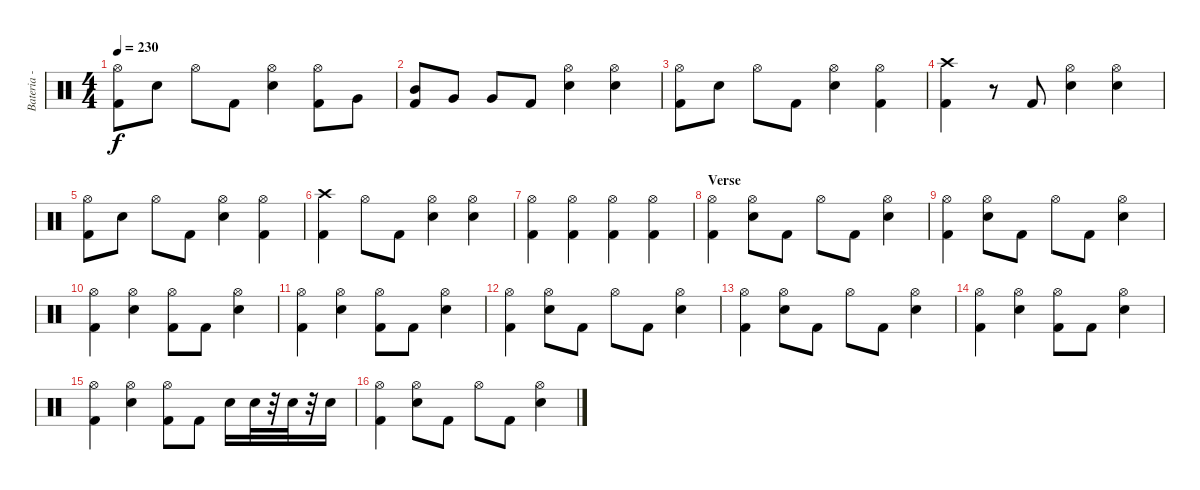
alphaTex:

\track ("Bateria - Larzon" "Bateria - ") {instrument percussion}
\staff {score}
\articulation defaults
\ts (4 4)
\tempo 230
\clef neutral
\ks c
("Hi-Hat (open)" "Kick (hit) 2").8{dy f} "Electric Snare (hit)".8 "Hi-Hat (open)".8 "Kick (hit) 2".8 ("Hi-Hat (open)" "Electric Snare (hit)").4 ("Hi-Hat (open)" "Kick (hit) 2").8 "Very Low Tom (hit)".8 |
("Kick (hit) 2" "Mid Tom (hit)").8 "Very Low Tom (hit)".8 "Very Low Tom (hit)".8 "Kick (hit) 2".8 ("Electric Snare (hit)" "Hi-Hat (open)").4 ("Hi-Hat (open)" "Electric Snare (hit)").4 |
("Hi-Hat (open)" "Kick (hit) 2").8 "Electric Snare (hit)".8 "Hi-Hat (open)".8 "Kick (hit) 2".8 ("Hi-Hat (open)" "Electric Snare (hit)").4 ("Hi-Hat (open)" "Kick (hit) 2").4 |
("Crash high (hit)" "Kick (hit) 2").4 r.8 "Kick (hit) 2".8 ("Electric Snare (hit)" "Hi-Hat (open)").4 ("Hi-Hat (open)" "Electric Snare (hit)").4 |
("Hi-Hat (open)" "Kick (hit) 2").8 "Electric Snare (hit)".8 "Hi-Hat (open)".8 "Kick (hit) 2".8 ("Hi-Hat (open)" "Electric Snare (hit)").4 ("Hi-Hat (open)" "Kick (hit) 2").4 |
("Crash high (hit)" "Kick (hit) 2").4 "Hi-Hat (open)".8 "Kick (hit) 2".8 ("Electric Snare (hit)" "Hi-Hat (open)").4 ("Hi-Hat (open)" "Electric Snare (hit)").4 |
("Kick (hit) 2" "Hi-Hat (open)").4 ("Hi-Hat (open)" "Kick (hit) 2").4 ("Hi-Hat (open)" "Kick (hit) 2").4 ("Hi-Hat (open)" "Kick (hit) 2").4 |
\section ("" "Verse")
("Hi-Hat (open)" "Kick (hit) 2").4 ("Hi-Hat (open)" "Electric Snare (hit)").8 "Kick (hit) 2".8 "Hi-Hat (open)".8 "Kick (hit) 2".8 ("Hi-Hat (open)" "Electric Snare (hit)").4 |
("Hi-Hat (open)" "Kick (hit) 2").4 ("Hi-Hat (open)" "Electric Snare (hit)").8 "Kick (hit) 2".8 "Hi-Hat (open)".8 "Kick (hit) 2".8 ("Hi-Hat (open)" "Electric Snare (hit)").4 |
("Hi-Hat (open)" "Kick (hit) 2").4 ("Hi-Hat (open)" "Electric Snare (hit)").4 ("Hi-Hat (open)" "Kick (hit) 2").8 "Kick (hit) 2".8 ("Hi-Hat (open)" "Electric Snare (hit)").4 |
("Hi-Hat (open)" "Kick (hit) 2").4 ("Hi-Hat (open)" "Electric Snare (hit)").4 ("Hi-Hat (open)" "Kick (hit) 2").8 "Kick (hit) 2".8 ("Hi-Hat (open)" "Electric Snare (hit)").4 |
("Hi-Hat (open)" "Kick (hit) 2").4 ("Hi-Hat (open)" "Electric Snare (hit)").8 "Kick (hit) 2".8 "Hi-Hat (open)".8 "Kick (hit) 2".8 ("Hi-Hat (open)" "Electric Snare (hit)").4 |
("Hi-Hat (open)" "Kick (hit) 2").4 ("Hi-Hat (open)" "Electric Snare (hit)").8 "Kick (hit) 2".8 "Hi-Hat (open)".8 "Kick (hit) 2".8 ("Hi-Hat (open)" "Electric Snare (hit)").4 |
("Hi-Hat (open)" "Kick (hit) 2").4 ("Hi-Hat (open)" "Electric Snare (hit)").4 ("Hi-Hat (open)" "Kick (hit) 2").8 "Kick (hit) 2".8 ("Hi-Hat (open)" "Electric Snare (hit)").4 |
("Hi-Hat (open)" "Kick (hit) 2").4 ("Hi-Hat (open)" "Electric Snare (hit)").4 ("Hi-Hat (open)" "Kick (hit) 2").8 "Kick (hit) 2".8 "Electric Snare (hit)".16 "Electric Snare (hit)".32 r.32 "Electric Snare (hit)".32 r.32 "Electric Snare (hit)".16 |
("Hi-Hat (open)" "Kick (hit) 2").4 ("Hi-Hat (open)" "Electric Snare (hit)").8 "Kick (hit) 2".8 "Hi-Hat (open)".8 "Kick (hit) 2".8 ("Hi-Hat (open)" "Electric Snare (hit)").4
